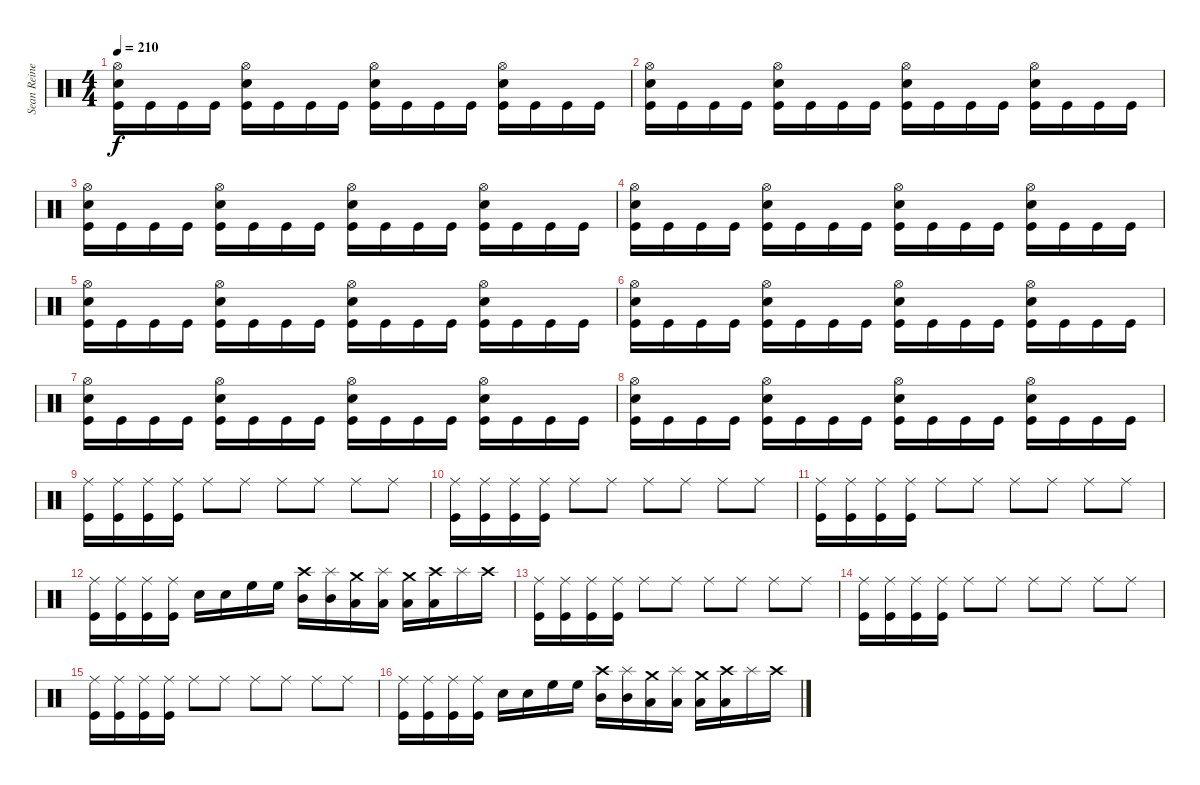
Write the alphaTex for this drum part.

\track ("Sean Reinert" "Sean Reine") {instrument percussion}
\staff {score}
\articulation defaults
\ts (4 4)
\tempo 210
\clef neutral
\ks c
("Hi-Hat (open)" "Snare (hit) 2" "Kick (hit)").16{dy f} "Kick (hit)".16 "Kick (hit)".16 "Kick (hit)".16 ("Hi-Hat (open)" "Snare (hit) 2" "Kick (hit)").16 "Kick (hit)".16 "Kick (hit)".16 "Kick (hit)".16 ("Hi-Hat (open)" "Snare (hit) 2" "Kick (hit)").16 "Kick (hit)".16 "Kick (hit)".16 "Kick (hit)".16 ("Hi-Hat (open)" "Snare (hit) 2" "Kick (hit)").16 "Kick (hit)".16 "Kick (hit)".16 "Kick (hit)".16 |
("Hi-Hat (open)" "Snare (hit) 2" "Kick (hit)").16 "Kick (hit)".16 "Kick (hit)".16 "Kick (hit)".16 ("Hi-Hat (open)" "Snare (hit) 2" "Kick (hit)").16 "Kick (hit)".16 "Kick (hit)".16 "Kick (hit)".16 ("Hi-Hat (open)" "Snare (hit) 2" "Kick (hit)").16 "Kick (hit)".16 "Kick (hit)".16 "Kick (hit)".16 ("Hi-Hat (open)" "Snare (hit) 2" "Kick (hit)").16 "Kick (hit)".16 "Kick (hit)".16 "Kick (hit)".16 |
("Hi-Hat (open)" "Snare (hit) 2" "Kick (hit)").16 "Kick (hit)".16 "Kick (hit)".16 "Kick (hit)".16 ("Hi-Hat (open)" "Snare (hit) 2" "Kick (hit)").16 "Kick (hit)".16 "Kick (hit)".16 "Kick (hit)".16 ("Hi-Hat (open)" "Snare (hit) 2" "Kick (hit)").16 "Kick (hit)".16 "Kick (hit)".16 "Kick (hit)".16 ("Hi-Hat (open)" "Snare (hit) 2" "Kick (hit)").16 "Kick (hit)".16 "Kick (hit)".16 "Kick (hit)".16 |
("Hi-Hat (open)" "Snare (hit) 2" "Kick (hit)").16 "Kick (hit)".16 "Kick (hit)".16 "Kick (hit)".16 ("Hi-Hat (open)" "Snare (hit) 2" "Kick (hit)").16 "Kick (hit)".16 "Kick (hit)".16 "Kick (hit)".16 ("Hi-Hat (open)" "Snare (hit) 2" "Kick (hit)").16 "Kick (hit)".16 "Kick (hit)".16 "Kick (hit)".16 ("Hi-Hat (open)" "Snare (hit) 2" "Kick (hit)").16 "Kick (hit)".16 "Kick (hit)".16 "Kick (hit)".16 |
("Hi-Hat (open)" "Snare (hit) 2" "Kick (hit)").16 "Kick (hit)".16 "Kick (hit)".16 "Kick (hit)".16 ("Hi-Hat (open)" "Snare (hit) 2" "Kick (hit)").16 "Kick (hit)".16 "Kick (hit)".16 "Kick (hit)".16 ("Hi-Hat (open)" "Snare (hit) 2" "Kick (hit)").16 "Kick (hit)".16 "Kick (hit)".16 "Kick (hit)".16 ("Hi-Hat (open)" "Snare (hit) 2" "Kick (hit)").16 "Kick (hit)".16 "Kick (hit)".16 "Kick (hit)".16 |
("Hi-Hat (open)" "Snare (hit) 2" "Kick (hit)").16 "Kick (hit)".16 "Kick (hit)".16 "Kick (hit)".16 ("Hi-Hat (open)" "Snare (hit) 2" "Kick (hit)").16 "Kick (hit)".16 "Kick (hit)".16 "Kick (hit)".16 ("Hi-Hat (open)" "Snare (hit) 2" "Kick (hit)").16 "Kick (hit)".16 "Kick (hit)".16 "Kick (hit)".16 ("Hi-Hat (open)" "Snare (hit) 2" "Kick (hit)").16 "Kick (hit)".16 "Kick (hit)".16 "Kick (hit)".16 |
("Hi-Hat (open)" "Snare (hit) 2" "Kick (hit)").16 "Kick (hit)".16 "Kick (hit)".16 "Kick (hit)".16 ("Hi-Hat (open)" "Snare (hit) 2" "Kick (hit)").16 "Kick (hit)".16 "Kick (hit)".16 "Kick (hit)".16 ("Hi-Hat (open)" "Snare (hit) 2" "Kick (hit)").16 "Kick (hit)".16 "Kick (hit)".16 "Kick (hit)".16 ("Hi-Hat (open)" "Snare (hit) 2" "Kick (hit)").16 "Kick (hit)".16 "Kick (hit)".16 "Kick (hit)".16 |
("Hi-Hat (open)" "Snare (hit) 2" "Kick (hit)").16 "Kick (hit)".16 "Kick (hit)".16 "Kick (hit)".16 ("Hi-Hat (open)" "Snare (hit) 2" "Kick (hit)").16 "Kick (hit)".16 "Kick (hit)".16 "Kick (hit)".16 ("Hi-Hat (open)" "Snare (hit) 2" "Kick (hit)").16 "Kick (hit)".16 "Kick (hit)".16 "Kick (hit)".16 ("Hi-Hat (open)" "Snare (hit) 2" "Kick (hit)").16 "Kick (hit)".16 "Kick (hit)".16 "Kick (hit)".16 |
("Ride (middle)" "Kick (hit)").16 ("Ride (middle)" "Kick (hit)").16 ("Ride (middle)" "Kick (hit)").16 ("Ride (middle)" "Kick (hit)").16 "Ride (middle)".8 "Ride (middle)".8 "Ride (middle)".8 "Ride (middle)".8 "Ride (middle)".8 "Ride (middle)".8 |
("Ride (middle)" "Kick (hit)").16 ("Ride (middle)" "Kick (hit)").16 ("Ride (middle)" "Kick (hit)").16 ("Ride (middle)" "Kick (hit)").16 "Ride (middle)".8 "Ride (middle)".8 "Ride (middle)".8 "Ride (middle)".8 "Ride (middle)".8 "Ride (middle)".8 |
("Ride (middle)" "Kick (hit)").16 ("Ride (middle)" "Kick (hit)").16 ("Ride (middle)" "Kick (hit)").16 ("Ride (middle)" "Kick (hit)").16 "Ride (middle)".8 "Ride (middle)".8 "Ride (middle)".8 "Ride (middle)".8 "Ride (middle)".8 "Ride (middle)".8 |
("Ride (middle)" "Kick (hit)").16 ("Ride (middle)" "Kick (hit)").16 ("Ride (middle)" "Kick (hit)").16 ("Ride (middle)" "Kick (hit)").16 "Snare (hit) 2".16 "Snare (hit) 2".16 "High Floor Tom (hit)".16 "High Floor Tom (hit)".16 ("Crash high (hit)" "Mid Tom (hit)").16 ("Splash (hit)" "Mid Tom (hit)").16 ("Crash medium (hit)" "Low Tom (hit)").16 ("Splash (hit)" "Low Tom (hit)").16 ("Crash medium (hit)" "Low Floor Tom (hit)").16 ("Crash high (hit)" "Low Floor Tom (hit)").16 "Splash (hit)".16 "Crash high (hit)".16 |
("Ride (middle)" "Kick (hit)").16 ("Ride (middle)" "Kick (hit)").16 ("Ride (middle)" "Kick (hit)").16 ("Ride (middle)" "Kick (hit)").16 "Ride (middle)".8 "Ride (middle)".8 "Ride (middle)".8 "Ride (middle)".8 "Ride (middle)".8 "Ride (middle)".8 |
("Ride (middle)" "Kick (hit)").16 ("Ride (middle)" "Kick (hit)").16 ("Ride (middle)" "Kick (hit)").16 ("Ride (middle)" "Kick (hit)").16 "Ride (middle)".8 "Ride (middle)".8 "Ride (middle)".8 "Ride (middle)".8 "Ride (middle)".8 "Ride (middle)".8 |
("Ride (middle)" "Kick (hit)").16 ("Ride (middle)" "Kick (hit)").16 ("Ride (middle)" "Kick (hit)").16 ("Ride (middle)" "Kick (hit)").16 "Ride (middle)".8 "Ride (middle)".8 "Ride (middle)".8 "Ride (middle)".8 "Ride (middle)".8 "Ride (middle)".8 |
("Ride (middle)" "Kick (hit)").16 ("Ride (middle)" "Kick (hit)").16 ("Ride (middle)" "Kick (hit)").16 ("Ride (middle)" "Kick (hit)").16 "Snare (hit) 2".16 "Snare (hit) 2".16 "High Floor Tom (hit)".16 "High Floor Tom (hit)".16 ("Crash high (hit)" "Mid Tom (hit)").16 ("Splash (hit)" "Mid Tom (hit)").16 ("Crash medium (hit)" "Low Tom (hit)").16 ("Splash (hit)" "Low Tom (hit)").16 ("Crash medium (hit)" "Low Floor Tom (hit)").16 ("Crash high (hit)" "Low Floor Tom (hit)").16 "Splash (hit)".16 "Crash high (hit)".16
